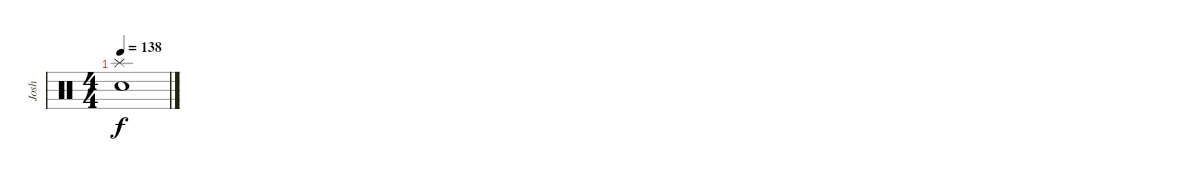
\track ("Josh" "Josh") {instrument percussion}
\staff {score}
\articulation defaults
\ts (4 4)
\tempo 138
\clef neutral
\ks c
("Splash (hit)" "Electric Snare (hit)").1{dy f}
